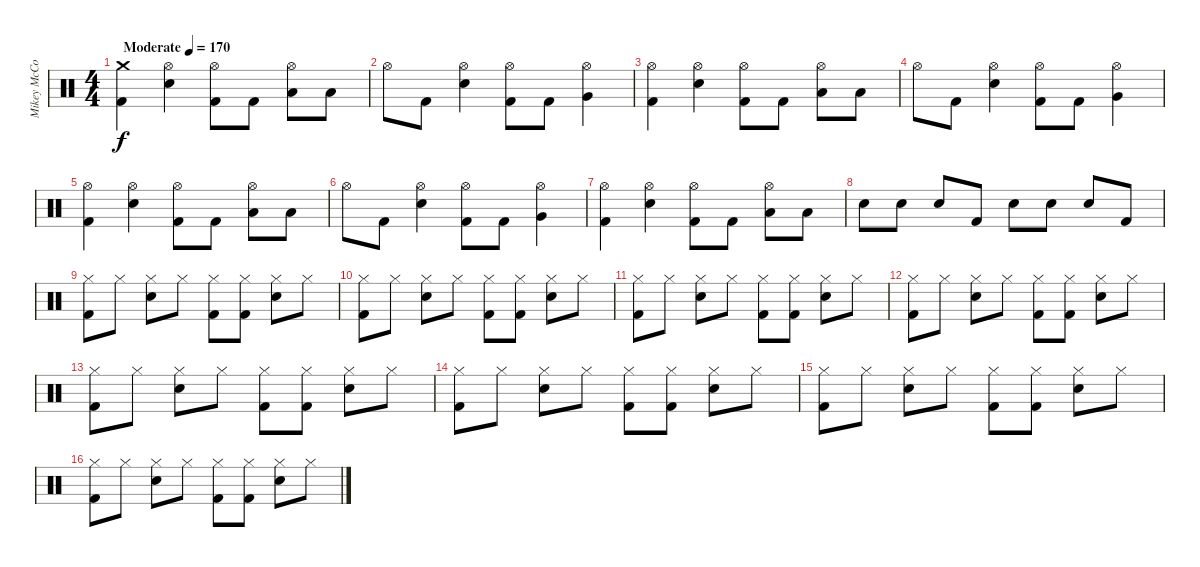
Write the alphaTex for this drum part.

\track ("Mikey McCormack" "Mikey McCo") {instrument percussion}
\staff {score}
\articulation defaults
\ts (4 4)
\tempo (170 "Moderate")
\clef neutral
\ks c
("Crash medium (hit)" "Kick (hit) 2").4{dy f} ("Hi-Hat (open)" "Electric Snare (hit)").4 ("Hi-Hat (open)" "Kick (hit) 2").8 "Kick (hit) 2".8 ("Hi-Hat (open)" "Low Tom (hit)").8 "Low Tom (hit)".8 |
"Hi-Hat (open)".8 "Kick (hit) 2".8 ("Hi-Hat (open)" "Electric Snare (hit)").4 ("Hi-Hat (open)" "Kick (hit) 2").8 "Kick (hit) 2".8 ("Hi-Hat (open)" "Very Low Tom (hit)").4 |
("Hi-Hat (open)" "Kick (hit) 2").4 ("Hi-Hat (open)" "Electric Snare (hit)").4 ("Hi-Hat (open)" "Kick (hit) 2").8 "Kick (hit) 2".8 ("Hi-Hat (open)" "Low Tom (hit)").8 "Low Tom (hit)".8 |
"Hi-Hat (open)".8 "Kick (hit) 2".8 ("Hi-Hat (open)" "Electric Snare (hit)").4 ("Hi-Hat (open)" "Kick (hit) 2").8 "Kick (hit) 2".8 ("Hi-Hat (open)" "Very Low Tom (hit)").4 |
("Hi-Hat (open)" "Kick (hit) 2").4 ("Hi-Hat (open)" "Electric Snare (hit)").4 ("Hi-Hat (open)" "Kick (hit) 2").8 "Kick (hit) 2".8 ("Hi-Hat (open)" "Low Tom (hit)").8 "Low Tom (hit)".8 |
"Hi-Hat (open)".8 "Kick (hit) 2".8 ("Hi-Hat (open)" "Electric Snare (hit)").4 ("Hi-Hat (open)" "Kick (hit) 2").8 "Kick (hit) 2".8 ("Hi-Hat (open)" "Very Low Tom (hit)").4 |
("Hi-Hat (open)" "Kick (hit) 2").4 ("Hi-Hat (open)" "Electric Snare (hit)").4 ("Hi-Hat (open)" "Kick (hit) 2").8 "Kick (hit) 2".8 ("Hi-Hat (open)" "Low Tom (hit)").8 "Low Tom (hit)".8 |
"Electric Snare (hit)".8 "Electric Snare (hit)".8 "Electric Snare (hit)".8 "Kick (hit) 2".8 "Electric Snare (hit)".8 "Electric Snare (hit)".8 "Electric Snare (hit)".8 "Kick (hit) 2".8 |
("Hi-Hat (closed)" "Kick (hit) 2").8 "Hi-Hat (closed)".8 ("Hi-Hat (closed)" "Electric Snare (hit)").8 "Hi-Hat (closed)".8 ("Hi-Hat (closed)" "Kick (hit) 2").8 ("Hi-Hat (closed)" "Kick (hit) 2").8 ("Hi-Hat (closed)" "Electric Snare (hit)").8 "Hi-Hat (closed)".8 |
("Hi-Hat (closed)" "Kick (hit) 2").8 "Hi-Hat (closed)".8 ("Hi-Hat (closed)" "Electric Snare (hit)").8 "Hi-Hat (closed)".8 ("Hi-Hat (closed)" "Kick (hit) 2").8 ("Hi-Hat (closed)" "Kick (hit) 2").8 ("Hi-Hat (closed)" "Electric Snare (hit)").8 "Hi-Hat (closed)".8 |
("Hi-Hat (closed)" "Kick (hit) 2").8 "Hi-Hat (closed)".8 ("Hi-Hat (closed)" "Electric Snare (hit)").8 "Hi-Hat (closed)".8 ("Hi-Hat (closed)" "Kick (hit) 2").8 ("Hi-Hat (closed)" "Kick (hit) 2").8 ("Hi-Hat (closed)" "Electric Snare (hit)").8 "Hi-Hat (closed)".8 |
("Hi-Hat (closed)" "Kick (hit) 2").8 "Hi-Hat (closed)".8 ("Hi-Hat (closed)" "Electric Snare (hit)").8 "Hi-Hat (closed)".8 ("Hi-Hat (closed)" "Kick (hit) 2").8 ("Hi-Hat (closed)" "Kick (hit) 2").8 ("Hi-Hat (closed)" "Electric Snare (hit)").8 "Hi-Hat (closed)".8 |
("Hi-Hat (closed)" "Kick (hit) 2").8 "Hi-Hat (closed)".8 ("Hi-Hat (closed)" "Electric Snare (hit)").8 "Hi-Hat (closed)".8 ("Hi-Hat (closed)" "Kick (hit) 2").8 ("Hi-Hat (closed)" "Kick (hit) 2").8 ("Hi-Hat (closed)" "Electric Snare (hit)").8 "Hi-Hat (closed)".8 |
("Hi-Hat (closed)" "Kick (hit) 2").8 "Hi-Hat (closed)".8 ("Hi-Hat (closed)" "Electric Snare (hit)").8 "Hi-Hat (closed)".8 ("Hi-Hat (closed)" "Kick (hit) 2").8 ("Hi-Hat (closed)" "Kick (hit) 2").8 ("Hi-Hat (closed)" "Electric Snare (hit)").8 "Hi-Hat (closed)".8 |
("Hi-Hat (closed)" "Kick (hit) 2").8 "Hi-Hat (closed)".8 ("Hi-Hat (closed)" "Electric Snare (hit)").8 "Hi-Hat (closed)".8 ("Hi-Hat (closed)" "Kick (hit) 2").8 ("Hi-Hat (closed)" "Kick (hit) 2").8 ("Hi-Hat (closed)" "Electric Snare (hit)").8 "Hi-Hat (closed)".8 |
("Hi-Hat (closed)" "Kick (hit) 2").8 "Hi-Hat (closed)".8 ("Hi-Hat (closed)" "Electric Snare (hit)").8 "Hi-Hat (closed)".8 ("Hi-Hat (closed)" "Kick (hit) 2").8 ("Hi-Hat (closed)" "Kick (hit) 2").8 ("Hi-Hat (closed)" "Electric Snare (hit)").8 "Hi-Hat (closed)".8
